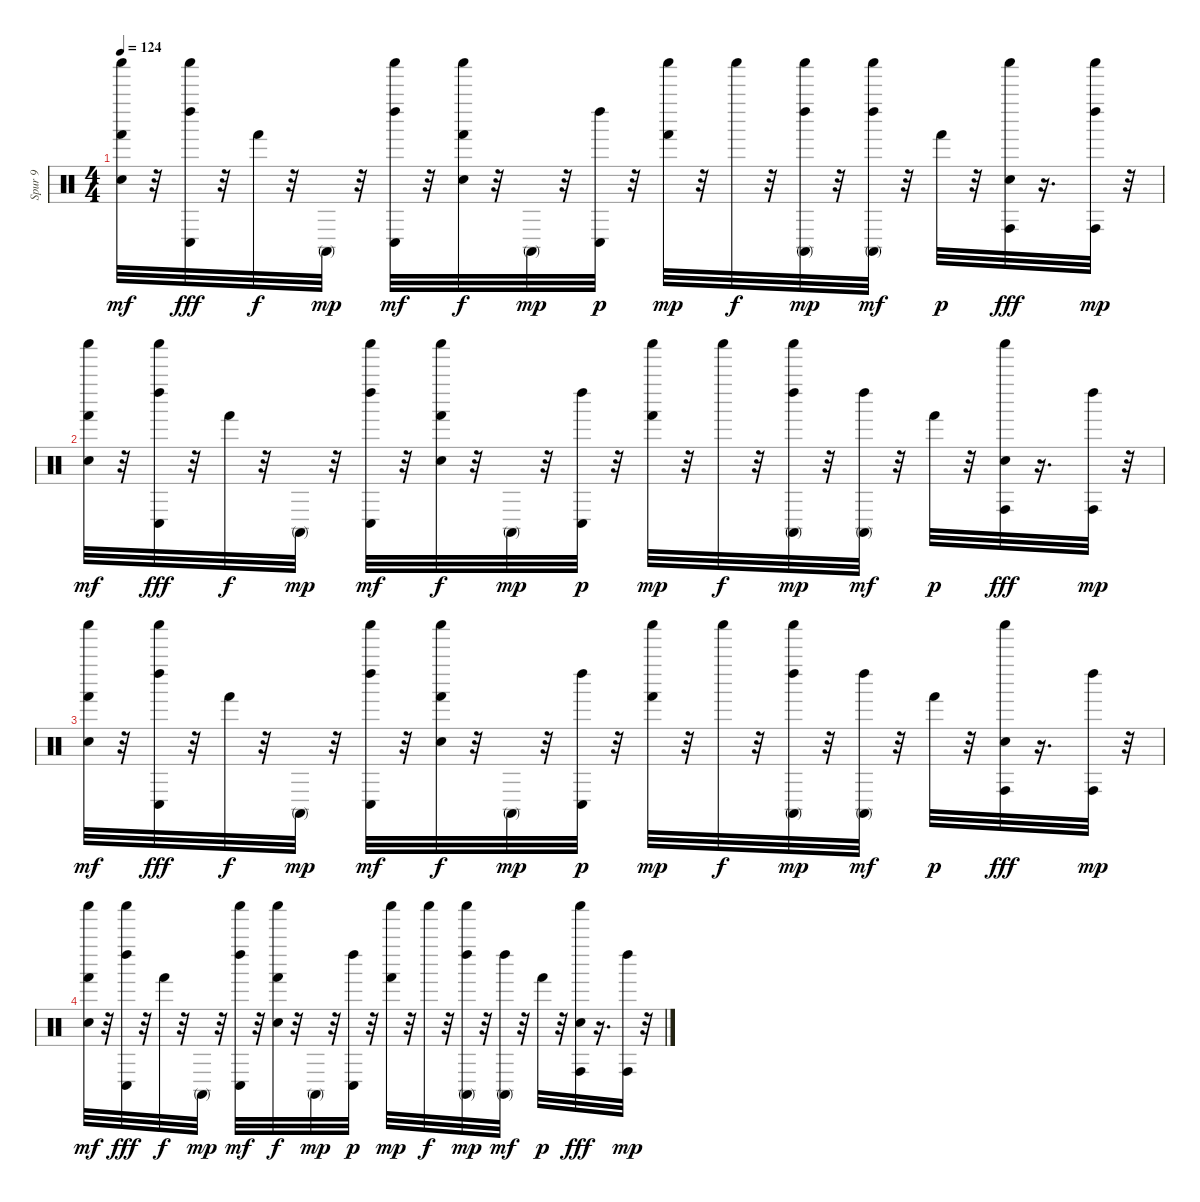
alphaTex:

\track ("Spur 9" "Spur 9") {instrument percussion}
\staff {score}
\articulation defaults
\ts (4 4)
\tempo 124
\clef neutral
\ks c
("Electric Snare (hit)" "Hand (hit)" "Shaker (hit)").32{dy mf} r.32 ("Conga low (hit)" "Left Maraca (hit)" "Shaker (hit)").32{dy fff} r.32 "Hand (hit)".32{dy f} r.32 "Conga high (mute)".32{dy mp} r.32 ("Conga low (hit)" "Left Maraca (hit)" "Shaker (hit)").32{dy mf} r.32 ("Electric Snare (hit)" "Hand (hit)" "Shaker (hit)").32{dy f} r.32 "Conga high (mute)".32{dy mp} r.32 ("Conga low (hit)" "Left Maraca (hit)").32{dy p} r.32 ("Hand (hit)" "Shaker (hit)").32{dy mp} r.32 "Shaker (hit)".32{dy f} r.32 ("Conga high (mute)" "Left Maraca (hit)" "Shaker (hit)").32{dy mp} r.32 ("Conga high (mute)" "Left Maraca (hit)" "Shaker (hit)").32{dy mf} r.32 "Hand (hit)".32{dy p} r.32 ("Electric Snare (hit)" "Conga high (hit)" "Shaker (hit)").32{dy fff} r.16{d} ("Conga high (hit)" "Left Maraca (hit)" "Shaker (hit)").32{dy mp} r.32 |
("Electric Snare (hit)" "Hand (hit)" "Shaker (hit)").32{dy mf} r.32 ("Conga low (hit)" "Left Maraca (hit)" "Shaker (hit)").32{dy fff} r.32 "Hand (hit)".32{dy f} r.32 "Conga high (mute)".32{dy mp} r.32 ("Conga low (hit)" "Left Maraca (hit)" "Shaker (hit)").32{dy mf} r.32 ("Electric Snare (hit)" "Hand (hit)" "Shaker (hit)").32{dy f} r.32 "Conga high (mute)".32{dy mp} r.32 ("Conga low (hit)" "Left Maraca (hit)").32{dy p} r.32 ("Hand (hit)" "Shaker (hit)").32{dy mp} r.32 "Shaker (hit)".32{dy f} r.32 ("Conga high (mute)" "Left Maraca (hit)" "Shaker (hit)").32{dy mp} r.32 ("Conga high (mute)" "Left Maraca (hit)").32{dy mf} r.32 "Hand (hit)".32{dy p} r.32 ("Electric Snare (hit)" "Conga high (hit)" "Shaker (hit)").32{dy fff} r.16{d} ("Conga high (hit)" "Left Maraca (hit)").32{dy mp} r.32 |
("Electric Snare (hit)" "Hand (hit)" "Shaker (hit)").32{dy mf} r.32 ("Conga low (hit)" "Left Maraca (hit)" "Shaker (hit)").32{dy fff} r.32 "Hand (hit)".32{dy f} r.32 "Conga high (mute)".32{dy mp} r.32 ("Conga low (hit)" "Left Maraca (hit)" "Shaker (hit)").32{dy mf} r.32 ("Electric Snare (hit)" "Hand (hit)" "Shaker (hit)").32{dy f} r.32 "Conga high (mute)".32{dy mp} r.32 ("Conga low (hit)" "Left Maraca (hit)").32{dy p} r.32 ("Hand (hit)" "Shaker (hit)").32{dy mp} r.32 "Shaker (hit)".32{dy f} r.32 ("Conga high (mute)" "Left Maraca (hit)" "Shaker (hit)").32{dy mp} r.32 ("Conga high (mute)" "Left Maraca (hit)").32{dy mf} r.32 "Hand (hit)".32{dy p} r.32 ("Electric Snare (hit)" "Conga high (hit)" "Shaker (hit)").32{dy fff} r.16{d} ("Conga high (hit)" "Left Maraca (hit)").32{dy mp} r.32 |
("Electric Snare (hit)" "Hand (hit)" "Shaker (hit)").32{dy mf} r.32 ("Conga low (hit)" "Left Maraca (hit)" "Shaker (hit)").32{dy fff} r.32 "Hand (hit)".32{dy f} r.32 "Conga high (mute)".32{dy mp} r.32 ("Conga low (hit)" "Left Maraca (hit)" "Shaker (hit)").32{dy mf} r.32 ("Electric Snare (hit)" "Hand (hit)" "Shaker (hit)").32{dy f} r.32 "Conga high (mute)".32{dy mp} r.32 ("Conga low (hit)" "Left Maraca (hit)").32{dy p} r.32 ("Hand (hit)" "Shaker (hit)").32{dy mp} r.32 "Shaker (hit)".32{dy f} r.32 ("Conga high (mute)" "Left Maraca (hit)" "Shaker (hit)").32{dy mp} r.32 ("Conga high (mute)" "Left Maraca (hit)").32{dy mf} r.32 "Hand (hit)".32{dy p} r.32 ("Electric Snare (hit)" "Conga high (hit)" "Shaker (hit)").32{dy fff} r.16{d} ("Conga high (hit)" "Left Maraca (hit)").32{dy mp} r.32
